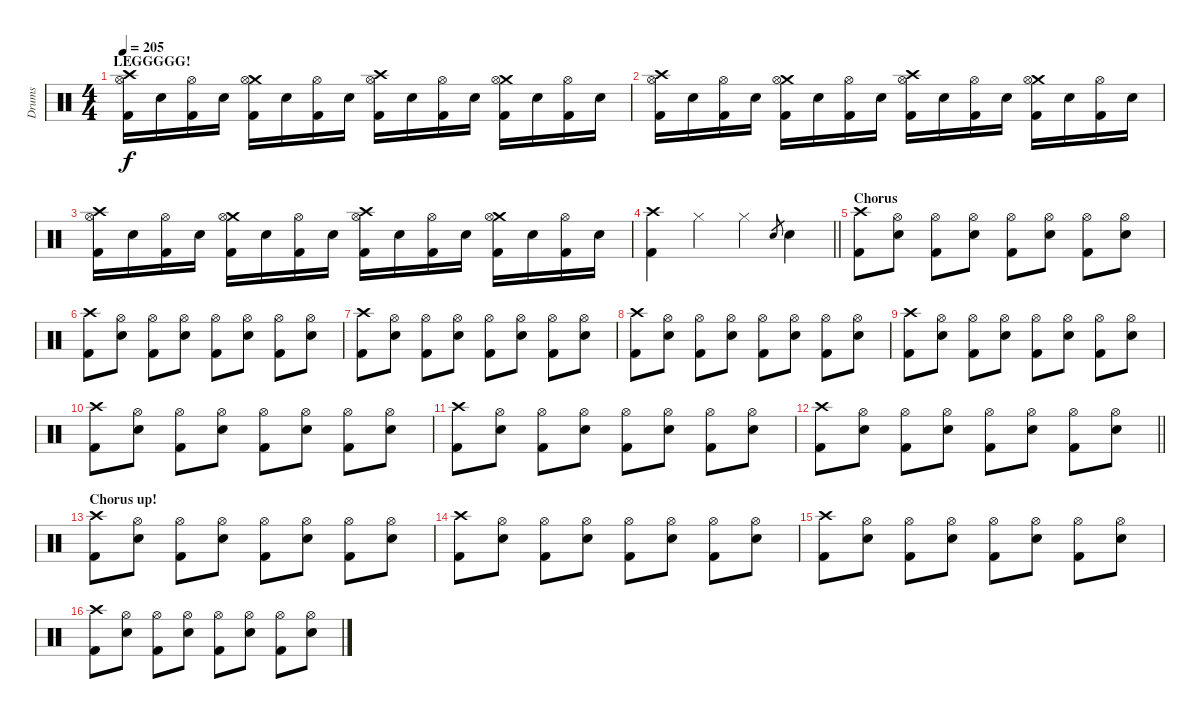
\track ("Drums" "Drums") {instrument percussion}
\staff {score}
\articulation defaults
\ts (4 4)
\section ("" "LEGGGGG!")
\tempo 205
\clef neutral
\ks c
("Crash high (hit)" "Hi-Hat (open)" "Kick (hit) 2").16{dy f} "Snare (hit) 2".16 ("Hi-Hat (open)" "Kick (hit) 2").16 "Snare (hit) 2".16 ("Crash medium (hit)" "Hi-Hat (open)" "Kick (hit) 2").16 "Snare (hit) 2".16 ("Hi-Hat (open)" "Kick (hit) 2").16 "Snare (hit) 2".16 ("Crash high (hit)" "Hi-Hat (open)" "Kick (hit) 2").16 "Snare (hit) 2".16 ("Hi-Hat (open)" "Kick (hit) 2").16 "Snare (hit) 2".16 ("Crash medium (hit)" "Hi-Hat (open)" "Kick (hit) 2").16 "Snare (hit) 2".16 ("Hi-Hat (open)" "Kick (hit) 2").16 "Snare (hit) 2".16 |
("Crash high (hit)" "Hi-Hat (open)" "Kick (hit) 2").16 "Snare (hit) 2".16 ("Hi-Hat (open)" "Kick (hit) 2").16 "Snare (hit) 2".16 ("Crash medium (hit)" "Hi-Hat (open)" "Kick (hit) 2").16 "Snare (hit) 2".16 ("Hi-Hat (open)" "Kick (hit) 2").16 "Snare (hit) 2".16 ("Crash high (hit)" "Hi-Hat (open)" "Kick (hit) 2").16 "Snare (hit) 2".16 ("Hi-Hat (open)" "Kick (hit) 2").16 "Snare (hit) 2".16 ("Crash medium (hit)" "Hi-Hat (open)" "Kick (hit) 2").16 "Snare (hit) 2".16 ("Hi-Hat (open)" "Kick (hit) 2").16 "Snare (hit) 2".16 |
("Crash high (hit)" "Hi-Hat (open)" "Kick (hit) 2").16 "Snare (hit) 2".16 ("Hi-Hat (open)" "Kick (hit) 2").16 "Snare (hit) 2".16 ("Crash medium (hit)" "Hi-Hat (open)" "Kick (hit) 2").16 "Snare (hit) 2".16 ("Hi-Hat (open)" "Kick (hit) 2").16 "Snare (hit) 2".16 ("Crash high (hit)" "Hi-Hat (open)" "Kick (hit) 2").16 "Snare (hit) 2".16 ("Hi-Hat (open)" "Kick (hit) 2").16 "Snare (hit) 2".16 ("Crash medium (hit)" "Hi-Hat (open)" "Kick (hit) 2").16 "Snare (hit) 2".16 ("Hi-Hat (open)" "Kick (hit) 2").16 "Snare (hit) 2".16 |
\barLineRight lightlight
("Crash high (hit)" "Kick (hit) 2").4 "Hi-Hat (closed)".4 "Hi-Hat (closed)".4 "Snare (hit) 2".8{gr} "Snare (hit) 2".4 |
\section ("" "Chorus")
("Crash high (hit)" "Kick (hit) 2").8 ("Hi-Hat (open)" "Snare (hit) 2").8 ("Hi-Hat (open)" "Kick (hit) 2").8 ("Hi-Hat (open)" "Snare (hit) 2").8 ("Hi-Hat (open)" "Kick (hit) 2").8 ("Hi-Hat (open)" "Snare (hit) 2").8 ("Hi-Hat (open)" "Kick (hit) 2").8 ("Hi-Hat (open)" "Snare (hit) 2").8 |
("Crash high (hit)" "Kick (hit) 2").8 ("Hi-Hat (open)" "Snare (hit) 2").8 ("Hi-Hat (open)" "Kick (hit) 2").8 ("Hi-Hat (open)" "Snare (hit) 2").8 ("Hi-Hat (open)" "Kick (hit) 2").8 ("Hi-Hat (open)" "Snare (hit) 2").8 ("Hi-Hat (open)" "Kick (hit) 2").8 ("Hi-Hat (open)" "Snare (hit) 2").8 |
("Crash high (hit)" "Kick (hit) 2").8 ("Hi-Hat (open)" "Snare (hit) 2").8 ("Hi-Hat (open)" "Kick (hit) 2").8 ("Hi-Hat (open)" "Snare (hit) 2").8 ("Hi-Hat (open)" "Kick (hit) 2").8 ("Hi-Hat (open)" "Snare (hit) 2").8 ("Hi-Hat (open)" "Kick (hit) 2").8 ("Hi-Hat (open)" "Snare (hit) 2").8 |
("Crash high (hit)" "Kick (hit) 2").8 ("Hi-Hat (open)" "Snare (hit) 2").8 ("Hi-Hat (open)" "Kick (hit) 2").8 ("Hi-Hat (open)" "Snare (hit) 2").8 ("Hi-Hat (open)" "Kick (hit) 2").8 ("Hi-Hat (open)" "Snare (hit) 2").8 ("Hi-Hat (open)" "Kick (hit) 2").8 ("Hi-Hat (open)" "Snare (hit) 2").8 |
("Crash high (hit)" "Kick (hit) 2").8 ("Hi-Hat (open)" "Snare (hit) 2").8 ("Hi-Hat (open)" "Kick (hit) 2").8 ("Hi-Hat (open)" "Snare (hit) 2").8 ("Hi-Hat (open)" "Kick (hit) 2").8 ("Hi-Hat (open)" "Snare (hit) 2").8 ("Hi-Hat (open)" "Kick (hit) 2").8 ("Hi-Hat (open)" "Snare (hit) 2").8 |
("Crash high (hit)" "Kick (hit) 2").8 ("Hi-Hat (open)" "Snare (hit) 2").8 ("Hi-Hat (open)" "Kick (hit) 2").8 ("Hi-Hat (open)" "Snare (hit) 2").8 ("Hi-Hat (open)" "Kick (hit) 2").8 ("Hi-Hat (open)" "Snare (hit) 2").8 ("Hi-Hat (open)" "Kick (hit) 2").8 ("Hi-Hat (open)" "Snare (hit) 2").8 |
("Crash high (hit)" "Kick (hit) 2").8 ("Hi-Hat (open)" "Snare (hit) 2").8 ("Hi-Hat (open)" "Kick (hit) 2").8 ("Hi-Hat (open)" "Snare (hit) 2").8 ("Hi-Hat (open)" "Kick (hit) 2").8 ("Hi-Hat (open)" "Snare (hit) 2").8 ("Hi-Hat (open)" "Kick (hit) 2").8 ("Hi-Hat (open)" "Snare (hit) 2").8 |
\barLineRight lightlight
("Crash high (hit)" "Kick (hit) 2").8 ("Hi-Hat (open)" "Snare (hit) 2").8 ("Hi-Hat (open)" "Kick (hit) 2").8 ("Hi-Hat (open)" "Snare (hit) 2").8 ("Hi-Hat (open)" "Kick (hit) 2").8 ("Hi-Hat (open)" "Snare (hit) 2").8 ("Hi-Hat (open)" "Kick (hit) 2").8 ("Hi-Hat (open)" "Snare (hit) 2").8 |
\section ("" "Chorus up!")
("Crash high (hit)" "Kick (hit) 2").8 ("Hi-Hat (open)" "Snare (hit) 2").8 ("Hi-Hat (open)" "Kick (hit) 2").8 ("Hi-Hat (open)" "Snare (hit) 2").8 ("Hi-Hat (open)" "Kick (hit) 2").8 ("Hi-Hat (open)" "Snare (hit) 2").8 ("Hi-Hat (open)" "Kick (hit) 2").8 ("Hi-Hat (open)" "Snare (hit) 2").8 |
("Crash high (hit)" "Kick (hit) 2").8 ("Hi-Hat (open)" "Snare (hit) 2").8 ("Hi-Hat (open)" "Kick (hit) 2").8 ("Hi-Hat (open)" "Snare (hit) 2").8 ("Hi-Hat (open)" "Kick (hit) 2").8 ("Hi-Hat (open)" "Snare (hit) 2").8 ("Hi-Hat (open)" "Kick (hit) 2").8 ("Hi-Hat (open)" "Snare (hit) 2").8 |
("Crash high (hit)" "Kick (hit) 2").8 ("Hi-Hat (open)" "Snare (hit) 2").8 ("Hi-Hat (open)" "Kick (hit) 2").8 ("Hi-Hat (open)" "Snare (hit) 2").8 ("Hi-Hat (open)" "Kick (hit) 2").8 ("Hi-Hat (open)" "Snare (hit) 2").8 ("Hi-Hat (open)" "Kick (hit) 2").8 ("Hi-Hat (open)" "Snare (hit) 2").8 |
("Crash high (hit)" "Kick (hit) 2").8 ("Hi-Hat (open)" "Snare (hit) 2").8 ("Hi-Hat (open)" "Kick (hit) 2").8 ("Hi-Hat (open)" "Snare (hit) 2").8 ("Hi-Hat (open)" "Kick (hit) 2").8 ("Hi-Hat (open)" "Snare (hit) 2").8 ("Hi-Hat (open)" "Kick (hit) 2").8 ("Hi-Hat (open)" "Snare (hit) 2").8
